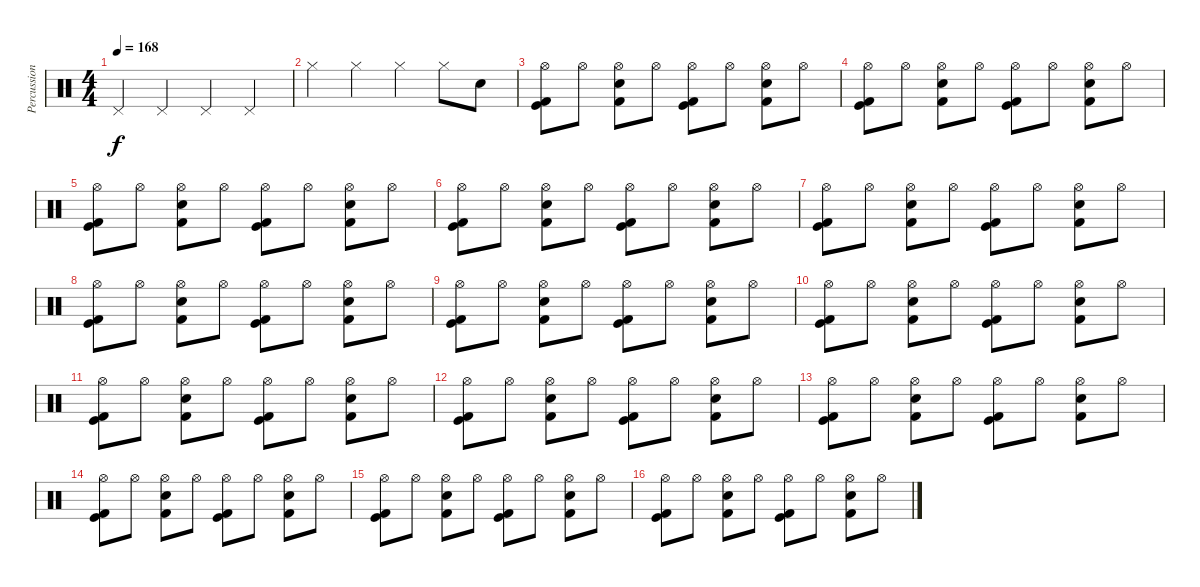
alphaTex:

\track ("Percussion" "Percussion") {instrument percussion}
\staff {score}
\articulation defaults
\ts (4 4)
\tempo 168
\clef neutral
\ks c "Pedal Hi-Hat (hit)".4{dy f} "Pedal Hi-Hat (hit)".4 "Pedal Hi-Hat (hit)".4 "Pedal Hi-Hat (hit)".4
|
"Hi-Hat (closed)".4 "Hi-Hat (closed)".4 "Hi-Hat (closed)".4 "Hi-Hat (closed)".8 "Electric Snare (hit)".8 |
("Hi-Hat (open)" "Kick (hit)" "Kick (hit) 2").8 "Hi-Hat (open)".8 ("Hi-Hat (open)" "Electric Snare (hit)" "Kick (hit) 2").8 "Hi-Hat (open)".8 ("Hi-Hat (open)" "Kick (hit)" "Kick (hit) 2").8 "Hi-Hat (open)".8 ("Hi-Hat (open)" "Electric Snare (hit)" "Kick (hit) 2").8 "Hi-Hat (open)".8 |
("Hi-Hat (open)" "Kick (hit)" "Kick (hit) 2").8 "Hi-Hat (open)".8 ("Hi-Hat (open)" "Electric Snare (hit)" "Kick (hit) 2").8 "Hi-Hat (open)".8 ("Hi-Hat (open)" "Kick (hit)" "Kick (hit) 2").8 "Hi-Hat (open)".8 ("Hi-Hat (open)" "Electric Snare (hit)" "Kick (hit) 2").8 "Hi-Hat (open)".8 |
("Hi-Hat (open)" "Kick (hit)" "Kick (hit) 2").8 "Hi-Hat (open)".8 ("Hi-Hat (open)" "Electric Snare (hit)" "Kick (hit) 2").8 "Hi-Hat (open)".8 ("Hi-Hat (open)" "Kick (hit)" "Kick (hit) 2").8 "Hi-Hat (open)".8 ("Hi-Hat (open)" "Electric Snare (hit)" "Kick (hit) 2").8 "Hi-Hat (open)".8 |
("Hi-Hat (open)" "Kick (hit)" "Kick (hit) 2").8 "Hi-Hat (open)".8 ("Hi-Hat (open)" "Electric Snare (hit)" "Kick (hit) 2").8 "Hi-Hat (open)".8 ("Hi-Hat (open)" "Kick (hit)" "Kick (hit) 2").8 "Hi-Hat (open)".8 ("Hi-Hat (open)" "Electric Snare (hit)" "Kick (hit) 2").8 "Hi-Hat (open)".8 |
("Hi-Hat (open)" "Kick (hit)" "Kick (hit) 2").8 "Hi-Hat (open)".8 ("Hi-Hat (open)" "Electric Snare (hit)" "Kick (hit) 2").8 "Hi-Hat (open)".8 ("Hi-Hat (open)" "Kick (hit)" "Kick (hit) 2").8 "Hi-Hat (open)".8 ("Hi-Hat (open)" "Electric Snare (hit)" "Kick (hit) 2").8 "Hi-Hat (open)".8 |
("Hi-Hat (open)" "Kick (hit)" "Kick (hit) 2").8 "Hi-Hat (open)".8 ("Hi-Hat (open)" "Electric Snare (hit)" "Kick (hit) 2").8 "Hi-Hat (open)".8 ("Hi-Hat (open)" "Kick (hit)" "Kick (hit) 2").8 "Hi-Hat (open)".8 ("Hi-Hat (open)" "Electric Snare (hit)" "Kick (hit) 2").8 "Hi-Hat (open)".8 |
("Hi-Hat (open)" "Kick (hit)" "Kick (hit) 2").8 "Hi-Hat (open)".8 ("Hi-Hat (open)" "Electric Snare (hit)" "Kick (hit) 2").8 "Hi-Hat (open)".8 ("Hi-Hat (open)" "Kick (hit)" "Kick (hit) 2").8 "Hi-Hat (open)".8 ("Hi-Hat (open)" "Electric Snare (hit)" "Kick (hit) 2").8 "Hi-Hat (open)".8 |
("Hi-Hat (open)" "Kick (hit)" "Kick (hit) 2").8 "Hi-Hat (open)".8 ("Hi-Hat (open)" "Electric Snare (hit)" "Kick (hit) 2").8 "Hi-Hat (open)".8 ("Hi-Hat (open)" "Kick (hit)" "Kick (hit) 2").8 "Hi-Hat (open)".8 ("Hi-Hat (open)" "Electric Snare (hit)" "Kick (hit) 2").8 "Hi-Hat (open)".8 |
("Hi-Hat (open)" "Kick (hit)" "Kick (hit) 2").8 "Hi-Hat (open)".8 ("Hi-Hat (open)" "Electric Snare (hit)" "Kick (hit) 2").8 "Hi-Hat (open)".8 ("Hi-Hat (open)" "Kick (hit)" "Kick (hit) 2").8 "Hi-Hat (open)".8 ("Hi-Hat (open)" "Electric Snare (hit)" "Kick (hit) 2").8 "Hi-Hat (open)".8 |
("Hi-Hat (open)" "Kick (hit)" "Kick (hit) 2").8 "Hi-Hat (open)".8 ("Hi-Hat (open)" "Electric Snare (hit)" "Kick (hit) 2").8 "Hi-Hat (open)".8 ("Hi-Hat (open)" "Kick (hit)" "Kick (hit) 2").8 "Hi-Hat (open)".8 ("Hi-Hat (open)" "Electric Snare (hit)" "Kick (hit) 2").8 "Hi-Hat (open)".8 |
("Hi-Hat (open)" "Kick (hit)" "Kick (hit) 2").8 "Hi-Hat (open)".8 ("Hi-Hat (open)" "Electric Snare (hit)" "Kick (hit) 2").8 "Hi-Hat (open)".8 ("Hi-Hat (open)" "Kick (hit)" "Kick (hit) 2").8 "Hi-Hat (open)".8 ("Hi-Hat (open)" "Electric Snare (hit)" "Kick (hit) 2").8 "Hi-Hat (open)".8 |
("Hi-Hat (open)" "Kick (hit)" "Kick (hit) 2").8 "Hi-Hat (open)".8 ("Hi-Hat (open)" "Electric Snare (hit)" "Kick (hit) 2").8 "Hi-Hat (open)".8 ("Hi-Hat (open)" "Kick (hit)" "Kick (hit) 2").8 "Hi-Hat (open)".8 ("Hi-Hat (open)" "Electric Snare (hit)" "Kick (hit) 2").8 "Hi-Hat (open)".8 |
("Hi-Hat (open)" "Kick (hit)" "Kick (hit) 2").8 "Hi-Hat (open)".8 ("Hi-Hat (open)" "Electric Snare (hit)" "Kick (hit) 2").8 "Hi-Hat (open)".8 ("Hi-Hat (open)" "Kick (hit)" "Kick (hit) 2").8 "Hi-Hat (open)".8 ("Hi-Hat (open)" "Electric Snare (hit)" "Kick (hit) 2").8 "Hi-Hat (open)".8 |
("Hi-Hat (open)" "Kick (hit)" "Kick (hit) 2").8 "Hi-Hat (open)".8 ("Hi-Hat (open)" "Electric Snare (hit)" "Kick (hit) 2").8 "Hi-Hat (open)".8 ("Hi-Hat (open)" "Kick (hit)" "Kick (hit) 2").8 "Hi-Hat (open)".8 ("Hi-Hat (open)" "Electric Snare (hit)" "Kick (hit) 2").8 "Hi-Hat (open)".8
